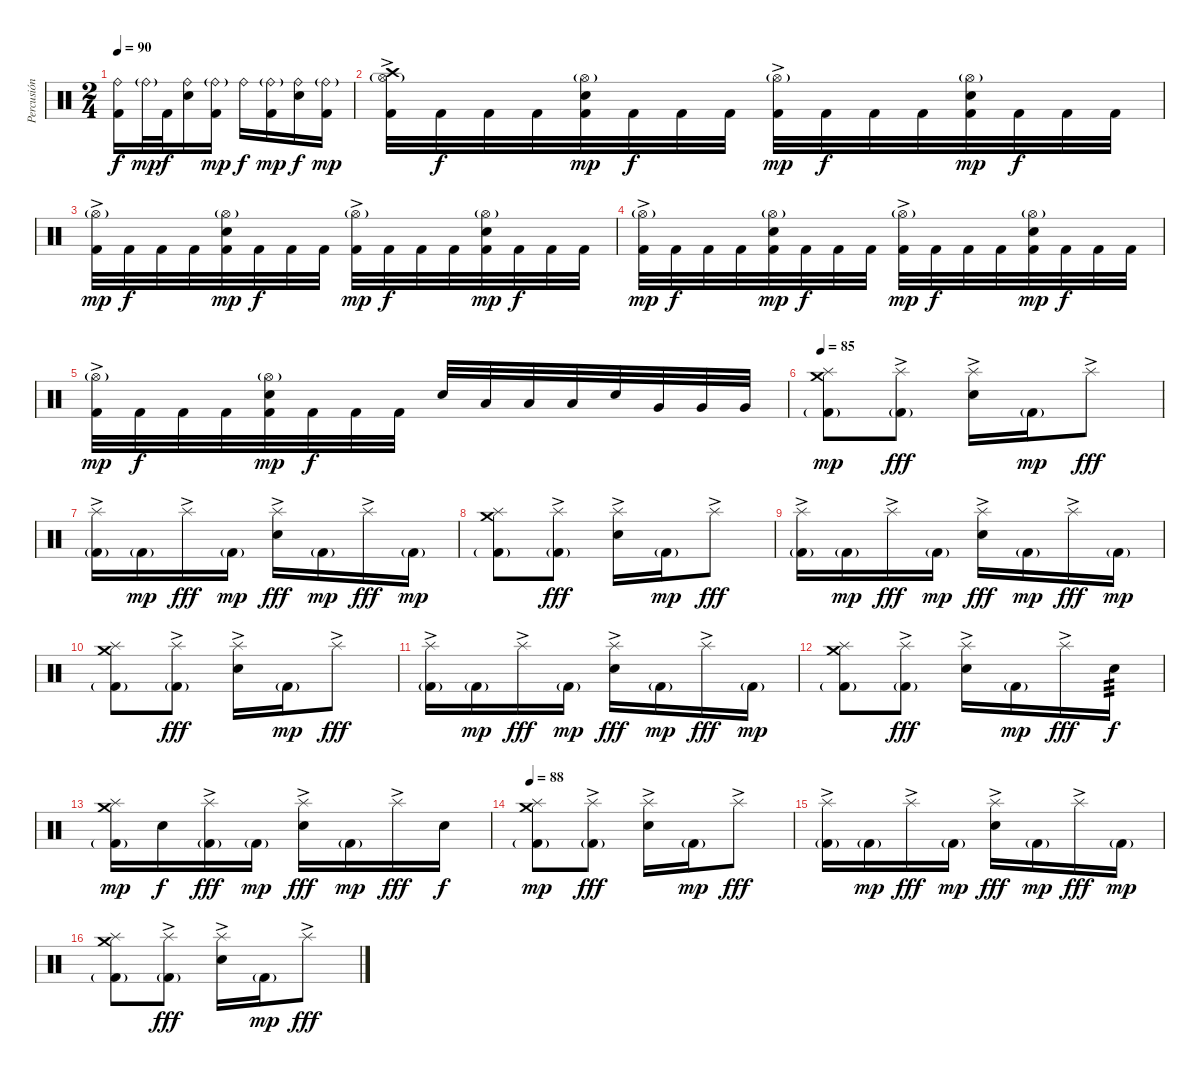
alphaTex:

\track ("Percusión" "Percusión") {instrument percussion}
\staff {score}
\articulation defaults
\ts (2 4)
\tempo 90
\clef neutral
\ks c
("Kick (hit) 2" "Ride (bell)").16{dy f} "Ride (bell)"{g}.32{dy mp} "Kick (hit) 2".32{dy f} ("Electric Snare (hit)" "Ride (bell)").16 ("Kick (hit) 2" "Ride (bell)"{g}).16{dy mp} "Ride (bell)".16{dy f} ("Kick (hit) 2" "Ride (bell)"{g}).16{dy mp} ("Electric Snare (hit)" "Ride (bell)").16{dy f} ("Kick (hit) 2" "Ride (bell)"{g}).16{dy mp} |
("Kick (hit) 2"{ac} "Hi-Hat (open)"{g} "Crash high (hit)").32 "Kick (hit) 2".32{dy f} "Kick (hit) 2".32 "Kick (hit) 2".32 ("Kick (hit) 2" "Electric Snare (hit)" "Hi-Hat (open)"{g}).32{dy mp} "Kick (hit) 2".32{dy f} "Kick (hit) 2".32 "Kick (hit) 2".32 ("Kick (hit) 2"{ac} "Hi-Hat (open)"{g}).32{dy mp} "Kick (hit) 2".32{dy f} "Kick (hit) 2".32 "Kick (hit) 2".32 ("Kick (hit) 2" "Electric Snare (hit)" "Hi-Hat (open)"{g}).32{dy mp} "Kick (hit) 2".32{dy f} "Kick (hit) 2".32 "Kick (hit) 2".32 |
("Kick (hit) 2"{ac} "Hi-Hat (open)"{g}).32{dy mp} "Kick (hit) 2".32{dy f} "Kick (hit) 2".32 "Kick (hit) 2".32 ("Kick (hit) 2" "Electric Snare (hit)" "Hi-Hat (open)"{g}).32{dy mp} "Kick (hit) 2".32{dy f} "Kick (hit) 2".32 "Kick (hit) 2".32 ("Kick (hit) 2"{ac} "Hi-Hat (open)"{g}).32{dy mp} "Kick (hit) 2".32{dy f} "Kick (hit) 2".32 "Kick (hit) 2".32 ("Kick (hit) 2" "Electric Snare (hit)" "Hi-Hat (open)"{g}).32{dy mp} "Kick (hit) 2".32{dy f} "Kick (hit) 2".32 "Kick (hit) 2".32 |
("Kick (hit) 2"{ac} "Hi-Hat (open)"{g}).32{dy mp} "Kick (hit) 2".32{dy f} "Kick (hit) 2".32 "Kick (hit) 2".32 ("Kick (hit) 2" "Electric Snare (hit)" "Hi-Hat (open)"{g}).32{dy mp} "Kick (hit) 2".32{dy f} "Kick (hit) 2".32 "Kick (hit) 2".32 ("Kick (hit) 2"{ac} "Hi-Hat (open)"{g}).32{dy mp} "Kick (hit) 2".32{dy f} "Kick (hit) 2".32 "Kick (hit) 2".32 ("Kick (hit) 2" "Electric Snare (hit)" "Hi-Hat (open)"{g}).32{dy mp} "Kick (hit) 2".32{dy f} "Kick (hit) 2".32 "Kick (hit) 2".32 |
("Kick (hit) 2"{ac} "Hi-Hat (open)"{g}).32{dy mp} "Kick (hit) 2".32{dy f} "Kick (hit) 2".32 "Kick (hit) 2".32 ("Kick (hit) 2" "Electric Snare (hit)" "Hi-Hat (open)"{g}).32{dy mp} "Kick (hit) 2".32{dy f} "Kick (hit) 2".32 "Kick (hit) 2".32 "Electric Snare (hit)".32 "Low Tom (hit)".32 "Low Tom (hit)".32 "Low Tom (hit)".32 "Electric Snare (hit)".32 "Very Low Tom (hit)".32 "Very Low Tom (hit)".32 "Very Low Tom (hit)".32 |
\tempo 85
("Kick (hit) 2"{g} "Splash (hit)" "Crash medium (hit)").8{dy mp} ("Kick (hit) 2"{g} "Splash (hit)"{ac}).8{dy fff} ("Electric Snare (hit)" "Splash (hit)"{ac}).16 "Kick (hit) 2"{g}.16{dy mp} "Splash (hit)"{ac}.8{dy fff} |
("Kick (hit) 2"{g} "Splash (hit)"{ac}).16 "Kick (hit) 2"{g}.16{dy mp} "Splash (hit)"{ac}.16{dy fff} "Kick (hit) 2"{g}.16{dy mp} ("Electric Snare (hit)" "Splash (hit)"{ac}).16{dy fff} "Kick (hit) 2"{g}.16{dy mp} "Splash (hit)"{ac}.16{dy fff} "Kick (hit) 2"{g}.16{dy mp} |
("Kick (hit) 2"{g} "Splash (hit)" "Crash medium (hit)").8 ("Kick (hit) 2"{g} "Splash (hit)"{ac}).8{dy fff} ("Electric Snare (hit)" "Splash (hit)"{ac}).16 "Kick (hit) 2"{g}.16{dy mp} "Splash (hit)"{ac}.8{dy fff} |
("Kick (hit) 2"{g} "Splash (hit)"{ac}).16 "Kick (hit) 2"{g}.16{dy mp} "Splash (hit)"{ac}.16{dy fff} "Kick (hit) 2"{g}.16{dy mp} ("Electric Snare (hit)" "Splash (hit)"{ac}).16{dy fff} "Kick (hit) 2"{g}.16{dy mp} "Splash (hit)"{ac}.16{dy fff} "Kick (hit) 2"{g}.16{dy mp} |
("Kick (hit) 2"{g} "Splash (hit)" "Crash medium (hit)").8 ("Kick (hit) 2"{g} "Splash (hit)"{ac}).8{dy fff} ("Electric Snare (hit)" "Splash (hit)"{ac}).16 "Kick (hit) 2"{g}.16{dy mp} "Splash (hit)"{ac}.8{dy fff} |
("Kick (hit) 2"{g} "Splash (hit)"{ac}).16 "Kick (hit) 2"{g}.16{dy mp} "Splash (hit)"{ac}.16{dy fff} "Kick (hit) 2"{g}.16{dy mp} ("Electric Snare (hit)" "Splash (hit)"{ac}).16{dy fff} "Kick (hit) 2"{g}.16{dy mp} "Splash (hit)"{ac}.16{dy fff} "Kick (hit) 2"{g}.16{dy mp} |
("Kick (hit) 2"{g} "Splash (hit)" "Crash medium (hit)").8 ("Kick (hit) 2"{g} "Splash (hit)"{ac}).8{dy fff} ("Electric Snare (hit)" "Splash (hit)"{ac}).16 "Kick (hit) 2"{g}.16{dy mp} "Splash (hit)"{ac}.16{dy fff} "Electric Snare (hit)".16{tp 3 dy f} |
("Kick (hit) 2"{g} "Splash (hit)" "Crash medium (hit)").16{dy mp} "Electric Snare (hit)".16{dy f} ("Kick (hit) 2"{g} "Splash (hit)"{ac}).16{dy fff} "Kick (hit) 2"{g}.16{dy mp} ("Electric Snare (hit)" "Splash (hit)"{ac}).16{dy fff} "Kick (hit) 2"{g}.16{dy mp} "Splash (hit)"{ac}.16{dy fff} "Electric Snare (hit)".16{dy f} |
\tempo 88
("Kick (hit) 2"{g} "Splash (hit)" "Crash medium (hit)").8{dy mp} ("Kick (hit) 2"{g} "Splash (hit)"{ac}).8{dy fff} ("Electric Snare (hit)" "Splash (hit)"{ac}).16 "Kick (hit) 2"{g}.16{dy mp} "Splash (hit)"{ac}.8{dy fff} |
("Kick (hit) 2"{g} "Splash (hit)"{ac}).16 "Kick (hit) 2"{g}.16{dy mp} "Splash (hit)"{ac}.16{dy fff} "Kick (hit) 2"{g}.16{dy mp} ("Electric Snare (hit)" "Splash (hit)"{ac}).16{dy fff} "Kick (hit) 2"{g}.16{dy mp} "Splash (hit)"{ac}.16{dy fff} "Kick (hit) 2"{g}.16{dy mp} |
("Kick (hit) 2"{g} "Splash (hit)" "Crash medium (hit)").8 ("Kick (hit) 2"{g} "Splash (hit)"{ac}).8{dy fff} ("Electric Snare (hit)" "Splash (hit)"{ac}).16 "Kick (hit) 2"{g}.16{dy mp} "Splash (hit)"{ac}.8{dy fff}
